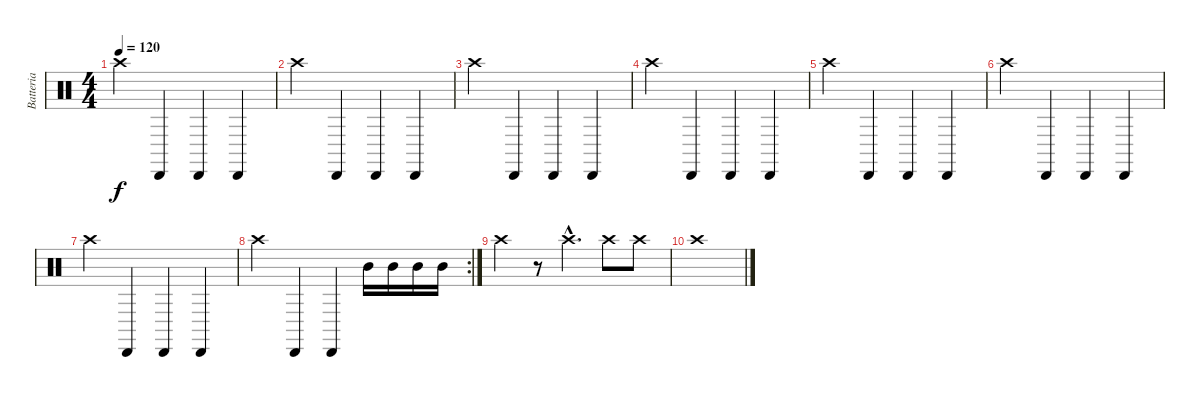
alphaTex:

\track ("Batteria" "Batteria") {instrument percussion}
\staff {score}
\articulation defaults
\ts (4 4)
\tempo 120
\clef neutral
\ks c "Crash high (hit)".4{dy f} "Cabasa (hit)".4 "Cabasa (hit)".4 "Cabasa (hit)".4
|
"Crash high (hit)".4 "Cabasa (hit)".4 "Cabasa (hit)".4 "Cabasa (hit)".4 |
"Crash high (hit)".4 "Cabasa (hit)".4 "Cabasa (hit)".4 "Cabasa (hit)".4 |
"Crash high (hit)".4 "Cabasa (hit)".4 "Cabasa (hit)".4 "Cabasa (hit)".4 |
"Crash high (hit)".4 "Cabasa (hit)".4 "Cabasa (hit)".4 "Cabasa (hit)".4 |
"Crash high (hit)".4 "Cabasa (hit)".4 "Cabasa (hit)".4 "Cabasa (hit)".4 |
"Crash high (hit)".4 "Cabasa (hit)".4 "Cabasa (hit)".4 "Cabasa (hit)".4 |
\rc 2 "Crash high (hit)".4 "Cabasa (hit)".4 "Cabasa (hit)".4 "Mid Tom (hit)".16 "Mid Tom (hit)".16 "Mid Tom (hit)".16 "Mid Tom (hit)".16
|
"Crash high (hit)".4 r.8 "Crash high (hit)"{hac}.4{d} "Crash high (hit)".8 "Crash high (hit)".8 |
"Crash high (hit)".1
